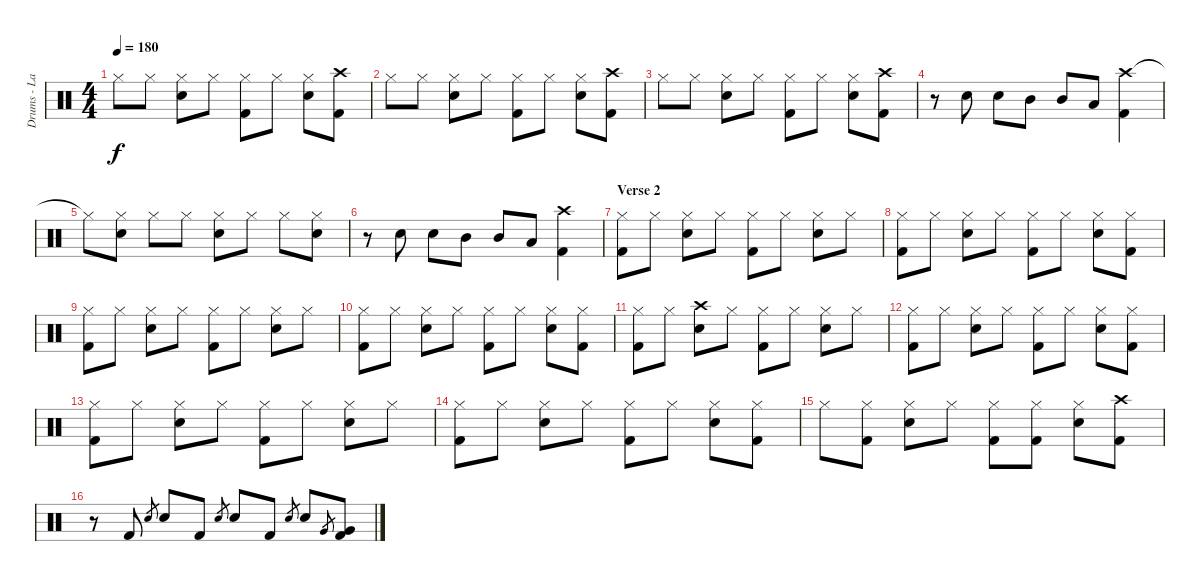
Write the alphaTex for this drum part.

\track ("Drums - Lars" "Drums - La") {instrument percussion}
\staff {score}
\articulation defaults
\ts (4 4)
\tempo 180
\clef neutral
\ks c "Hi-Hat (closed)".8{dy f} "Hi-Hat (closed)".8
("Hi-Hat (closed)" "Snare (hit) 2").8 "Hi-Hat (closed)".8 ("Hi-Hat (closed)" "Kick (hit) 2").8 "Hi-Hat (closed)".8 ("Hi-Hat (closed)" "Snare (hit) 2").8 ("Crash high (hit)" "Kick (hit) 2").8 |
"Hi-Hat (closed)".8 "Hi-Hat (closed)".8 ("Hi-Hat (closed)" "Snare (hit) 2").8 "Hi-Hat (closed)".8 ("Hi-Hat (closed)" "Kick (hit) 2").8 "Hi-Hat (closed)".8 ("Hi-Hat (closed)" "Snare (hit) 2").8 ("Crash high (hit)" "Kick (hit) 2").8 |
"Hi-Hat (closed)".8 "Hi-Hat (closed)".8 ("Hi-Hat (closed)" "Snare (hit) 2").8 "Hi-Hat (closed)".8 ("Hi-Hat (closed)" "Kick (hit) 2").8 "Hi-Hat (closed)".8 ("Hi-Hat (closed)" "Snare (hit) 2").8 ("Crash high (hit)" "Kick (hit) 2").8 |
r.8 "Snare (hit) 2".8 "Snare (hit) 2".8 "Mid Tom (hit)".8 "Mid Tom (hit)".8 "Low Tom (hit)".8 ("Crash high (hit)" "Kick (hit) 2").4 |
"Hi-Hat (closed)"{t}.8 ("Hi-Hat (closed)" "Snare (hit) 2").8 "Hi-Hat (closed)".8 "Hi-Hat (closed)".8 ("Hi-Hat (closed)" "Snare (hit) 2").8 "Hi-Hat (closed)".8 "Hi-Hat (closed)".8 ("Hi-Hat (closed)" "Snare (hit) 2").8 |
r.8 "Snare (hit) 2".8 "Snare (hit) 2".8 "Mid Tom (hit)".8 "Mid Tom (hit)".8 "Low Tom (hit)".8 ("Crash high (hit)" "Kick (hit) 2").4 |
\section ("" "Verse 2")
("Hi-Hat (closed)" "Kick (hit) 2").8 "Hi-Hat (closed)".8 ("Hi-Hat (closed)" "Snare (hit) 2").8 "Hi-Hat (closed)".8 ("Hi-Hat (closed)" "Kick (hit) 2").8 "Hi-Hat (closed)".8 ("Hi-Hat (closed)" "Snare (hit) 2").8 "Hi-Hat (closed)".8 |
("Hi-Hat (closed)" "Kick (hit) 2").8 "Hi-Hat (closed)".8 ("Hi-Hat (closed)" "Snare (hit) 2").8 "Hi-Hat (closed)".8 ("Hi-Hat (closed)" "Kick (hit) 2").8 "Hi-Hat (closed)".8 ("Hi-Hat (closed)" "Snare (hit) 2").8 ("Hi-Hat (closed)" "Kick (hit) 2").8 |
("Hi-Hat (closed)" "Kick (hit) 2").8 "Hi-Hat (closed)".8 ("Hi-Hat (closed)" "Snare (hit) 2").8 "Hi-Hat (closed)".8 ("Hi-Hat (closed)" "Kick (hit) 2").8 "Hi-Hat (closed)".8 ("Hi-Hat (closed)" "Snare (hit) 2").8 "Hi-Hat (closed)".8 |
("Hi-Hat (closed)" "Kick (hit) 2").8 "Hi-Hat (closed)".8 ("Hi-Hat (closed)" "Snare (hit) 2").8 "Hi-Hat (closed)".8 ("Hi-Hat (closed)" "Kick (hit) 2").8 "Hi-Hat (closed)".8 ("Hi-Hat (closed)" "Snare (hit) 2").8 ("Hi-Hat (closed)" "Kick (hit) 2").8 |
("Hi-Hat (closed)" "Kick (hit) 2").8 "Hi-Hat (closed)".8 ("Crash high (hit)" "Snare (hit) 2").8 "Hi-Hat (closed)".8 ("Hi-Hat (closed)" "Kick (hit) 2").8 "Hi-Hat (closed)".8 ("Hi-Hat (closed)" "Snare (hit) 2").8 "Hi-Hat (closed)".8 |
("Hi-Hat (closed)" "Kick (hit) 2").8 "Hi-Hat (closed)".8 ("Hi-Hat (closed)" "Snare (hit) 2").8 "Hi-Hat (closed)".8 ("Hi-Hat (closed)" "Kick (hit) 2").8 "Hi-Hat (closed)".8 ("Hi-Hat (closed)" "Snare (hit) 2").8 ("Hi-Hat (closed)" "Kick (hit) 2").8 |
("Hi-Hat (closed)" "Kick (hit) 2").8 "Hi-Hat (closed)".8 ("Hi-Hat (closed)" "Snare (hit) 2").8 "Hi-Hat (closed)".8 ("Hi-Hat (closed)" "Kick (hit) 2").8 "Hi-Hat (closed)".8 ("Hi-Hat (closed)" "Snare (hit) 2").8 "Hi-Hat (closed)".8 |
("Hi-Hat (closed)" "Kick (hit) 2").8 "Hi-Hat (closed)".8 ("Hi-Hat (closed)" "Snare (hit) 2").8 "Hi-Hat (closed)".8 ("Hi-Hat (closed)" "Kick (hit) 2").8 "Hi-Hat (closed)".8 ("Hi-Hat (closed)" "Snare (hit) 2").8 ("Hi-Hat (closed)" "Kick (hit) 2").8 |
"Hi-Hat (closed)".8 ("Hi-Hat (closed)" "Kick (hit) 2").8 ("Hi-Hat (closed)" "Snare (hit) 2").8 "Hi-Hat (closed)".8 ("Hi-Hat (closed)" "Kick (hit) 2").8 ("Hi-Hat (closed)" "Kick (hit) 2").8 ("Hi-Hat (closed)" "Snare (hit) 2").8 ("Crash high (hit)" "Kick (hit) 2").8 |
r.8 "Kick (hit) 2".8 "Snare (hit) 2".8{gr} "Snare (hit) 2".8 "Kick (hit) 2".8 "Snare (hit) 2".8{gr} "Snare (hit) 2".8 "Kick (hit) 2".8 "Snare (hit) 2".8{gr} "Snare (hit) 2".8 "Very Low Tom (hit)".8{gr} ("Very Low Tom (hit)" "Kick (hit) 2").8
